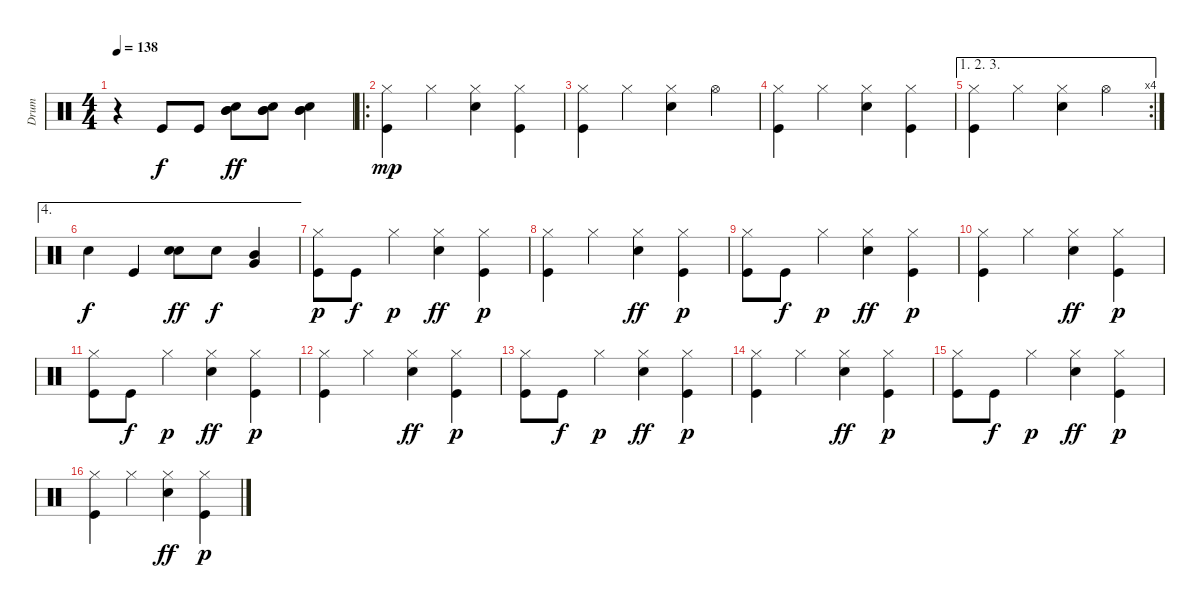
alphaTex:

\track ("Drum" "Drum") {instrument percussion}
\staff {score}
\articulation defaults
\ts (4 4)
\tempo 138
\clef neutral
\ks c
r.4{dy f} "Kick (hit)".8 "Kick (hit)".8 ("Mid Tom (hit)" "Mid Tom (hit)" "Snare (hit) 2").8{dy ff} ("Mid Tom (hit)" "Mid Tom (hit)" "Snare (hit) 2").8 ("Mid Tom (hit)" "Mid Tom (hit)" "Snare (hit) 2").4 |
\ro
("Kick (hit)" "Hi-Hat (closed)").4{dy mp} "Hi-Hat (closed)".4 ("Snare (hit) 2" "Hi-Hat (closed)").4 ("Kick (hit)" "Hi-Hat (closed)").4 |
("Kick (hit)" "Hi-Hat (closed)").4 "Hi-Hat (closed)".4 ("Snare (hit) 2" "Hi-Hat (closed)").4 "Hi-Hat (open)".4 |
("Kick (hit)" "Hi-Hat (closed)").4 "Hi-Hat (closed)".4 ("Snare (hit) 2" "Hi-Hat (closed)").4 ("Kick (hit)" "Hi-Hat (closed)").4 |
\ae (1 2 3)
\rc 4
("Kick (hit)" "Hi-Hat (closed)").4 "Hi-Hat (closed)".4 ("Snare (hit) 2" "Hi-Hat (closed)").4 "Hi-Hat (open)".4 |
\ae 4 "Snare (hit) 2".4{dy f} "Kick (hit)".4
("Snare (hit) 2" "Snare (hit) 2").8{dy ff} "Snare (hit) 2".8{dy f} ("Mid Tom (hit)" "Very Low Tom (hit)").4 |
("Kick (hit)" "Hi-Hat (closed)").8{dy p} "Kick (hit)".8{dy f} "Hi-Hat (closed)".4{dy p} ("Snare (hit) 2" "Hi-Hat (closed)").4{dy ff} ("Kick (hit)" "Hi-Hat (closed)").4{dy p} |
("Kick (hit)" "Hi-Hat (closed)").4 "Hi-Hat (closed)".4 ("Snare (hit) 2" "Hi-Hat (closed)").4{dy ff} ("Kick (hit)" "Hi-Hat (closed)").4{dy p} |
("Kick (hit)" "Hi-Hat (closed)").8 "Kick (hit)".8{dy f} "Hi-Hat (closed)".4{dy p} ("Snare (hit) 2" "Hi-Hat (closed)").4{dy ff} ("Kick (hit)" "Hi-Hat (closed)").4{dy p} |
("Kick (hit)" "Hi-Hat (closed)").4 "Hi-Hat (closed)".4 ("Snare (hit) 2" "Hi-Hat (closed)").4{dy ff} ("Kick (hit)" "Hi-Hat (closed)").4{dy p} |
("Kick (hit)" "Hi-Hat (closed)").8 "Kick (hit)".8{dy f} "Hi-Hat (closed)".4{dy p} ("Snare (hit) 2" "Hi-Hat (closed)").4{dy ff} ("Kick (hit)" "Hi-Hat (closed)").4{dy p} |
("Kick (hit)" "Hi-Hat (closed)").4 "Hi-Hat (closed)".4 ("Snare (hit) 2" "Hi-Hat (closed)").4{dy ff} ("Kick (hit)" "Hi-Hat (closed)").4{dy p} |
("Kick (hit)" "Hi-Hat (closed)").8 "Kick (hit)".8{dy f} "Hi-Hat (closed)".4{dy p} ("Snare (hit) 2" "Hi-Hat (closed)").4{dy ff} ("Kick (hit)" "Hi-Hat (closed)").4{dy p} |
("Kick (hit)" "Hi-Hat (closed)").4 "Hi-Hat (closed)".4 ("Snare (hit) 2" "Hi-Hat (closed)").4{dy ff} ("Kick (hit)" "Hi-Hat (closed)").4{dy p} |
("Kick (hit)" "Hi-Hat (closed)").8 "Kick (hit)".8{dy f} "Hi-Hat (closed)".4{dy p} ("Snare (hit) 2" "Hi-Hat (closed)").4{dy ff} ("Kick (hit)" "Hi-Hat (closed)").4{dy p} |
("Kick (hit)" "Hi-Hat (closed)").4 "Hi-Hat (closed)".4 ("Snare (hit) 2" "Hi-Hat (closed)").4{dy ff} ("Kick (hit)" "Hi-Hat (closed)").4{dy p}
